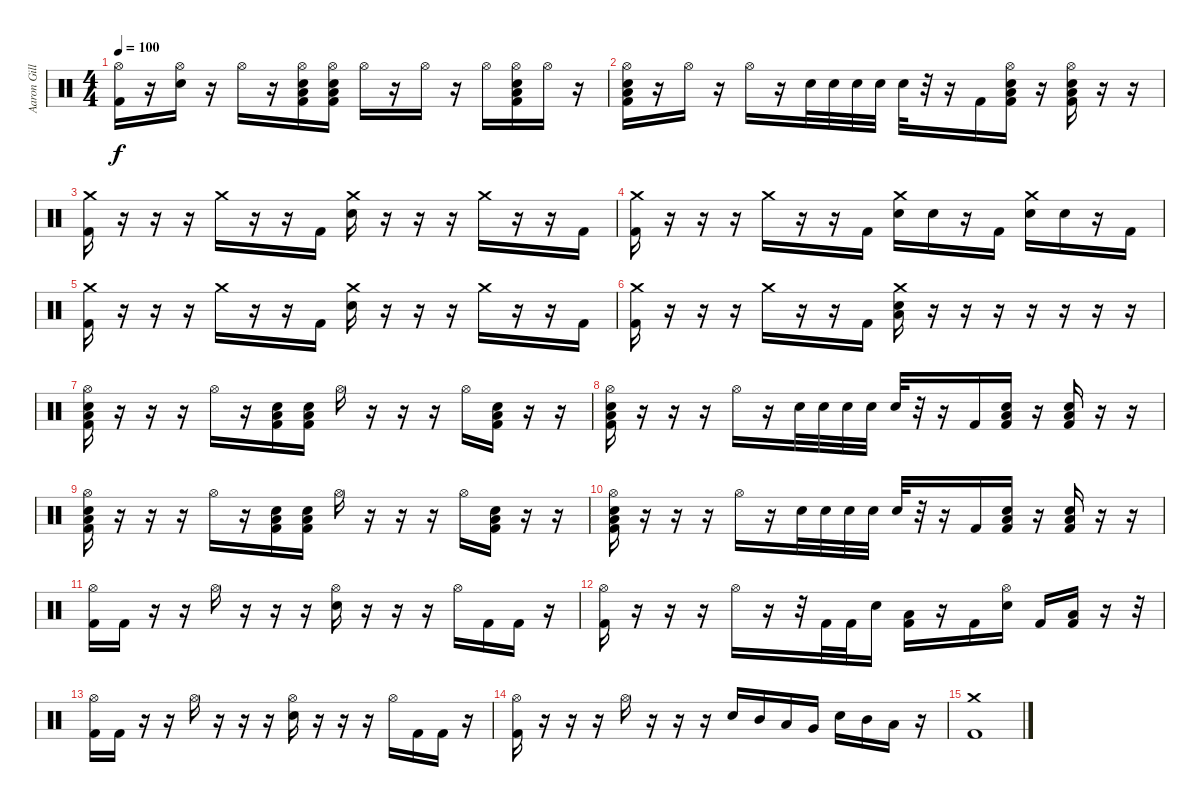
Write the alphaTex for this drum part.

\track ("Aaron Gillespie" "Aaron Gill") {instrument percussion}
\staff {score}
\articulation defaults
\ts (4 4)
\tempo 100
\clef neutral
\ks c
("Hi-Hat (open)" "Kick (hit) 2").16{dy f} r.16 ("Hi-Hat (open)" "Electric Snare (hit)").16 r.16 "Hi-Hat (open)".16 r.16 ("Hi-Hat (open)" "Low Floor Tom (hit)" "Electric Snare (hit)" "Kick (hit) 2").16 ("Hi-Hat (open)" "Low Floor Tom (hit)" "Electric Snare (hit)" "Kick (hit) 2").16 "Hi-Hat (open)".16 r.16 "Hi-Hat (open)".16 r.16 "Hi-Hat (open)".16 ("Hi-Hat (open)" "Low Floor Tom (hit)" "Electric Snare (hit)" "Kick (hit) 2").16 "Hi-Hat (open)".16 r.16 |
("Hi-Hat (open)" "Low Floor Tom (hit)" "Electric Snare (hit)" "Kick (hit) 2").16 r.16 "Hi-Hat (open)".16 r.16 "Hi-Hat (open)".16 r.16 "Electric Snare (hit)".32 "Electric Snare (hit)".32 "Electric Snare (hit)".32 "Electric Snare (hit)".32 "Electric Snare (hit)".32 r.32 r.16 "Kick (hit) 2".16 ("Hi-Hat (open)" "Low Floor Tom (hit)" "Electric Snare (hit)" "Kick (hit) 2").16 r.16 ("Hi-Hat (open)" "Low Floor Tom (hit)" "Electric Snare (hit)" "Kick (hit) 2").16 r.16 r.16 |
("Crash medium (hit)" "Kick (hit) 2").16 r.16 r.16 r.16 "Crash medium (hit)".16 r.16 r.16 "Kick (hit) 2".16 ("Crash medium (hit)" "Electric Snare (hit)").16 r.16 r.16 r.16 "Crash medium (hit)".16 r.16 r.16 "Kick (hit) 2".16 |
("Crash medium (hit)" "Kick (hit) 2").16 r.16 r.16 r.16 "Crash medium (hit)".16 r.16 r.16 "Kick (hit) 2".16 ("Crash medium (hit)" "Electric Snare (hit)").16 "Electric Snare (hit)".16 r.16 "Kick (hit) 2".16 ("Crash medium (hit)" "Electric Snare (hit)").16 "Electric Snare (hit)".16 r.16 "Kick (hit) 2".16 |
("Crash medium (hit)" "Kick (hit) 2").16 r.16 r.16 r.16 "Crash medium (hit)".16 r.16 r.16 "Kick (hit) 2".16 ("Crash medium (hit)" "Electric Snare (hit)").16 r.16 r.16 r.16 "Crash medium (hit)".16 r.16 r.16 "Kick (hit) 2".16 |
("Crash medium (hit)" "Kick (hit) 2").16 r.16 r.16 r.16 "Crash medium (hit)".16 r.16 r.16 "Kick (hit) 2".16 ("Crash medium (hit)" "Low Floor Tom (hit)" "Electric Snare (hit)").16 r.16{volume 0} r.16 r.16 r.16 r.16 r.16 r.16 |
("Hi-Hat (open)" "Low Floor Tom (hit)" "Electric Snare (hit)" "Kick (hit) 2").16{volume 16} r.16 r.16 r.16 "Hi-Hat (open)".16 r.16 ("Low Floor Tom (hit)" "Electric Snare (hit)" "Kick (hit) 2").16 ("Low Floor Tom (hit)" "Electric Snare (hit)" "Kick (hit) 2").16 "Hi-Hat (open)".16 r.16 r.16 r.16 "Hi-Hat (open)".16 ("Low Floor Tom (hit)" "Electric Snare (hit)" "Kick (hit) 2").16 r.16 r.16 |
("Hi-Hat (open)" "Low Floor Tom (hit)" "Electric Snare (hit)" "Kick (hit) 2").16 r.16 r.16 r.16 "Hi-Hat (open)".16 r.16 "Electric Snare (hit)".32 "Electric Snare (hit)".32 "Electric Snare (hit)".32 "Electric Snare (hit)".32 "Electric Snare (hit)".32 r.32 r.16 "Kick (hit) 2".16 ("Low Floor Tom (hit)" "Electric Snare (hit)" "Kick (hit) 2").16 r.16 ("Low Floor Tom (hit)" "Electric Snare (hit)" "Kick (hit) 2").16 r.16 r.16 |
("Hi-Hat (open)" "Low Floor Tom (hit)" "Electric Snare (hit)" "Kick (hit) 2").16 r.16 r.16 r.16 "Hi-Hat (open)".16 r.16 ("Low Floor Tom (hit)" "Electric Snare (hit)" "Kick (hit) 2").16 ("Low Floor Tom (hit)" "Electric Snare (hit)" "Kick (hit) 2").16 "Hi-Hat (open)".16 r.16 r.16 r.16 "Hi-Hat (open)".16 ("Low Floor Tom (hit)" "Electric Snare (hit)" "Kick (hit) 2").16 r.16 r.16 |
("Hi-Hat (open)" "Low Floor Tom (hit)" "Electric Snare (hit)" "Kick (hit) 2").16 r.16 r.16 r.16 "Hi-Hat (open)".16 r.16 "Electric Snare (hit)".32 "Electric Snare (hit)".32 "Electric Snare (hit)".32 "Electric Snare (hit)".32 "Electric Snare (hit)".32 r.32 r.16 "Kick (hit) 2".16 ("Low Floor Tom (hit)" "Electric Snare (hit)" "Kick (hit) 2").16 r.16 ("Low Floor Tom (hit)" "Electric Snare (hit)" "Kick (hit) 2").16 r.16 r.16 |
("Hi-Hat (open)" "Kick (hit) 2").16 "Kick (hit) 2".16 r.16 r.16 "Hi-Hat (open)".16 r.16 r.16 r.16 ("Hi-Hat (open)" "Electric Snare (hit)").16 r.16 r.16 r.16 "Hi-Hat (open)".16 "Kick (hit) 2".16 "Kick (hit) 2".16 r.16 |
("Hi-Hat (open)" "Kick (hit) 2").16 r.16 r.16 r.16 "Hi-Hat (open)".16 r.16 r.32 "Kick (hit) 2".32 "Kick (hit) 2".32 "Electric Snare (hit)".16 ("Low Floor Tom (hit)" "Kick (hit) 2").16 r.16 "Kick (hit) 2".16 ("Hi-Hat (open)" "Electric Snare (hit)").16 "Kick (hit) 2".16 ("Low Floor Tom (hit)" "Kick (hit) 2").16 r.16 r.32 |
("Hi-Hat (open)" "Kick (hit) 2").16 "Kick (hit) 2".16 r.16 r.16 "Hi-Hat (open)".16 r.16 r.16 r.16 ("Hi-Hat (open)" "Electric Snare (hit)").16 r.16 r.16 r.16 "Hi-Hat (open)".16 "Kick (hit) 2".16 "Kick (hit) 2".16 r.16 |
("Hi-Hat (open)" "Kick (hit) 2").16 r.16 r.16 r.16 "Hi-Hat (open)".16 r.16 r.16 r.16 "Electric Snare (hit)".16 "Mid Tom (hit)".16 "Low Tom (hit)".16 "Very Low Tom (hit)".16 "Electric Snare (hit)".16 "Mid Tom (hit)".16 "Low Tom (hit)".16 r.16 |
("Crash medium (hit)" "Kick (hit) 2").1
